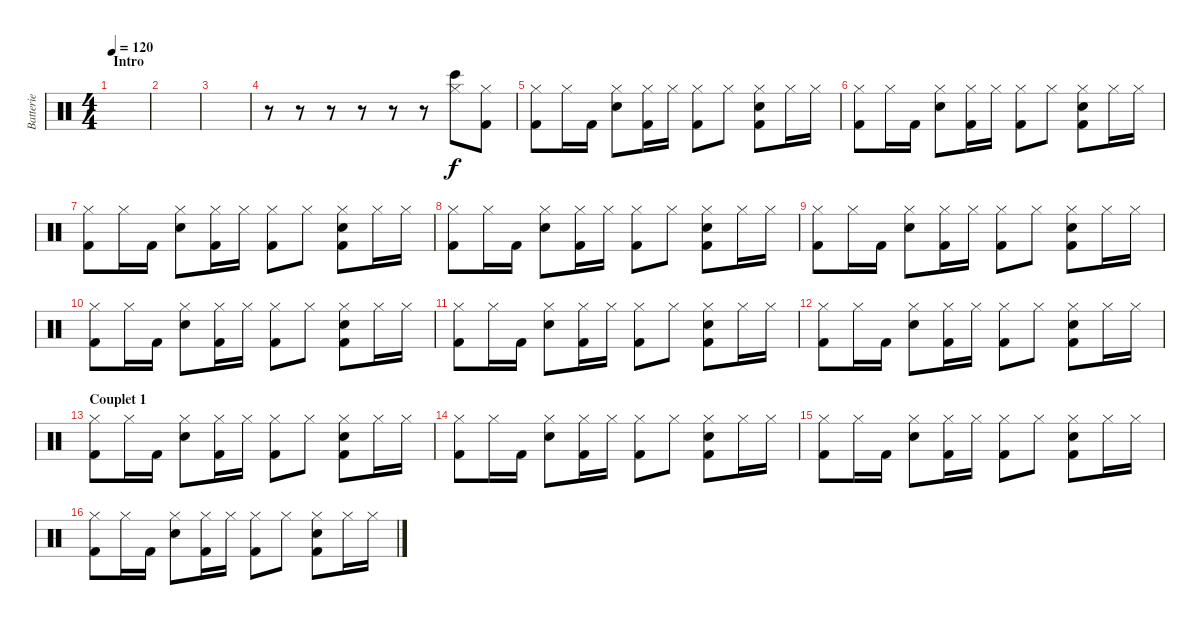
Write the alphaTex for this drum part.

\track ("Batterie" "Batterie") {instrument percussion}
\staff {score}
\articulation defaults
\ts (4 4)
\section ("" "Intro")
\tempo 120
\clef neutral
\ks c
|
|
|
r.8 r.8 r.8 r.8 r.8 r.8 ("Hi-Hat (closed)" "Bongo High (hit)").8 ("Kick (hit) 2" "Hi-Hat (closed)").8 |
("Kick (hit) 2" "Hi-Hat (closed)").8 "Hi-Hat (closed)".16 "Kick (hit) 2".16 ("Electric Snare (hit)" "Hi-Hat (closed)").8 ("Kick (hit) 2" "Hi-Hat (closed)").16 "Hi-Hat (closed)".16 ("Kick (hit) 2" "Hi-Hat (closed)").8 "Hi-Hat (closed)".8 ("Kick (hit) 2" "Electric Snare (hit)" "Hi-Hat (closed)").8 "Hi-Hat (closed)".16 "Hi-Hat (closed)".16 |
("Kick (hit) 2" "Hi-Hat (closed)").8 "Hi-Hat (closed)".16 "Kick (hit) 2".16 ("Electric Snare (hit)" "Hi-Hat (closed)").8 ("Kick (hit) 2" "Hi-Hat (closed)").16 "Hi-Hat (closed)".16 ("Kick (hit) 2" "Hi-Hat (closed)").8 "Hi-Hat (closed)".8 ("Kick (hit) 2" "Electric Snare (hit)" "Hi-Hat (closed)").8 "Hi-Hat (closed)".16 "Hi-Hat (closed)".16 |
("Kick (hit) 2" "Hi-Hat (closed)").8 "Hi-Hat (closed)".16 "Kick (hit) 2".16 ("Electric Snare (hit)" "Hi-Hat (closed)").8 ("Kick (hit) 2" "Hi-Hat (closed)").16 "Hi-Hat (closed)".16 ("Kick (hit) 2" "Hi-Hat (closed)").8 "Hi-Hat (closed)".8 ("Kick (hit) 2" "Electric Snare (hit)" "Hi-Hat (closed)").8 "Hi-Hat (closed)".16 "Hi-Hat (closed)".16 |
("Kick (hit) 2" "Hi-Hat (closed)").8 "Hi-Hat (closed)".16 "Kick (hit) 2".16 ("Electric Snare (hit)" "Hi-Hat (closed)").8 ("Kick (hit) 2" "Hi-Hat (closed)").16 "Hi-Hat (closed)".16 ("Kick (hit) 2" "Hi-Hat (closed)").8 "Hi-Hat (closed)".8 ("Kick (hit) 2" "Electric Snare (hit)" "Hi-Hat (closed)").8 "Hi-Hat (closed)".16 "Hi-Hat (closed)".16 |
("Kick (hit) 2" "Hi-Hat (closed)").8 "Hi-Hat (closed)".16 "Kick (hit) 2".16 ("Electric Snare (hit)" "Hi-Hat (closed)").8 ("Kick (hit) 2" "Hi-Hat (closed)").16 "Hi-Hat (closed)".16 ("Kick (hit) 2" "Hi-Hat (closed)").8 "Hi-Hat (closed)".8 ("Kick (hit) 2" "Electric Snare (hit)" "Hi-Hat (closed)").8 "Hi-Hat (closed)".16 "Hi-Hat (closed)".16 |
("Kick (hit) 2" "Hi-Hat (closed)").8 "Hi-Hat (closed)".16 "Kick (hit) 2".16 ("Electric Snare (hit)" "Hi-Hat (closed)").8 ("Kick (hit) 2" "Hi-Hat (closed)").16 "Hi-Hat (closed)".16 ("Kick (hit) 2" "Hi-Hat (closed)").8 "Hi-Hat (closed)".8 ("Kick (hit) 2" "Electric Snare (hit)" "Hi-Hat (closed)").8 "Hi-Hat (closed)".16 "Hi-Hat (closed)".16 |
("Kick (hit) 2" "Hi-Hat (closed)").8 "Hi-Hat (closed)".16 "Kick (hit) 2".16 ("Electric Snare (hit)" "Hi-Hat (closed)").8 ("Kick (hit) 2" "Hi-Hat (closed)").16 "Hi-Hat (closed)".16 ("Kick (hit) 2" "Hi-Hat (closed)").8 "Hi-Hat (closed)".8 ("Kick (hit) 2" "Electric Snare (hit)" "Hi-Hat (closed)").8 "Hi-Hat (closed)".16 "Hi-Hat (closed)".16 |
("Kick (hit) 2" "Hi-Hat (closed)").8 "Hi-Hat (closed)".16 "Kick (hit) 2".16 ("Electric Snare (hit)" "Hi-Hat (closed)").8 ("Kick (hit) 2" "Hi-Hat (closed)").16 "Hi-Hat (closed)".16 ("Kick (hit) 2" "Hi-Hat (closed)").8 "Hi-Hat (closed)".8 ("Kick (hit) 2" "Electric Snare (hit)" "Hi-Hat (closed)").8 "Hi-Hat (closed)".16 "Hi-Hat (closed)".16 |
\section ("" "Couplet 1")
("Kick (hit) 2" "Hi-Hat (closed)").8 "Hi-Hat (closed)".16 "Kick (hit) 2".16 ("Electric Snare (hit)" "Hi-Hat (closed)").8 ("Kick (hit) 2" "Hi-Hat (closed)").16 "Hi-Hat (closed)".16 ("Kick (hit) 2" "Hi-Hat (closed)").8 "Hi-Hat (closed)".8 ("Kick (hit) 2" "Electric Snare (hit)" "Hi-Hat (closed)").8 "Hi-Hat (closed)".16 "Hi-Hat (closed)".16 |
("Kick (hit) 2" "Hi-Hat (closed)").8 "Hi-Hat (closed)".16 "Kick (hit) 2".16 ("Electric Snare (hit)" "Hi-Hat (closed)").8 ("Kick (hit) 2" "Hi-Hat (closed)").16 "Hi-Hat (closed)".16 ("Kick (hit) 2" "Hi-Hat (closed)").8 "Hi-Hat (closed)".8 ("Kick (hit) 2" "Electric Snare (hit)" "Hi-Hat (closed)").8 "Hi-Hat (closed)".16 "Hi-Hat (closed)".16 |
("Kick (hit) 2" "Hi-Hat (closed)").8 "Hi-Hat (closed)".16 "Kick (hit) 2".16 ("Electric Snare (hit)" "Hi-Hat (closed)").8 ("Kick (hit) 2" "Hi-Hat (closed)").16 "Hi-Hat (closed)".16 ("Kick (hit) 2" "Hi-Hat (closed)").8 "Hi-Hat (closed)".8 ("Kick (hit) 2" "Electric Snare (hit)" "Hi-Hat (closed)").8 "Hi-Hat (closed)".16 "Hi-Hat (closed)".16 |
("Kick (hit) 2" "Hi-Hat (closed)").8 "Hi-Hat (closed)".16 "Kick (hit) 2".16 ("Electric Snare (hit)" "Hi-Hat (closed)").8 ("Kick (hit) 2" "Hi-Hat (closed)").16 "Hi-Hat (closed)".16 ("Kick (hit) 2" "Hi-Hat (closed)").8 "Hi-Hat (closed)".8 ("Kick (hit) 2" "Electric Snare (hit)" "Hi-Hat (closed)").8 "Hi-Hat (closed)".16 "Hi-Hat (closed)".16
